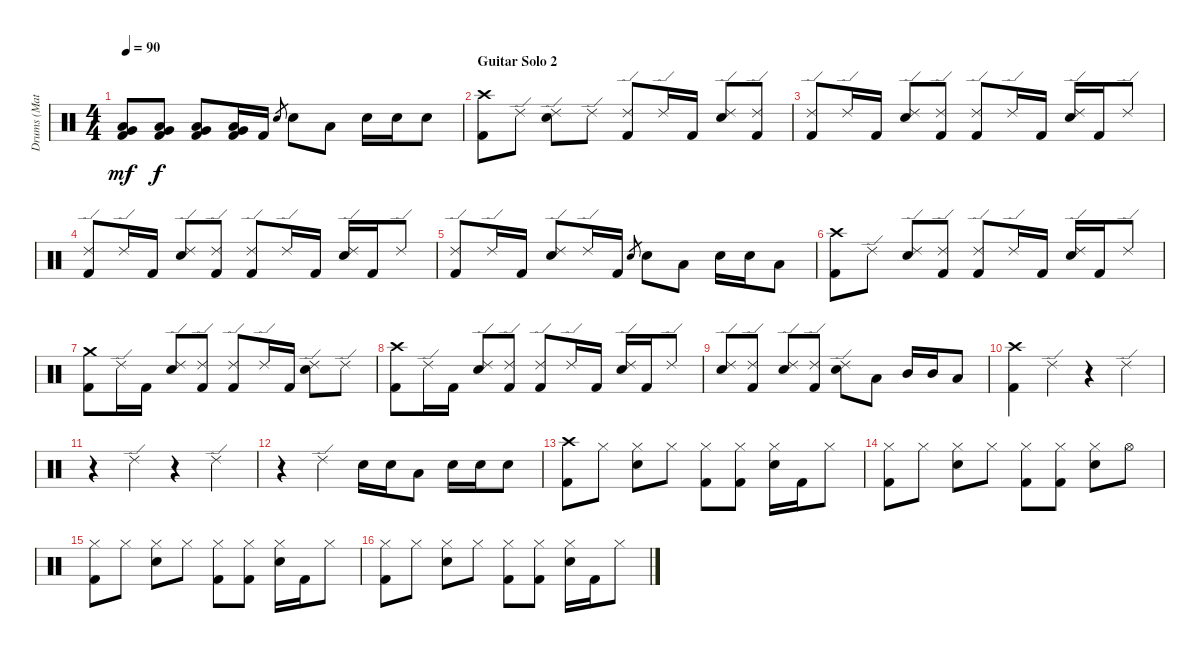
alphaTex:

\track ("Drums (Matt)" "Drums (Mat") {instrument percussion}
\staff {score}
\articulation defaults
\ts (4 4)
\tempo 90
\clef neutral
\ks c
("Low Tom (hit)" "Very Low Tom (hit)" "Kick (hit) 2").8{dy mf} ("Low Tom (hit)" "Very Low Tom (hit)" "Kick (hit) 2").8{dy f} ("Low Tom (hit)" "Very Low Tom (hit)" "Kick (hit) 2").8 ("Low Tom (hit)" "Very Low Tom (hit)" "Kick (hit) 2").16 "Kick (hit) 2".16 "Snare (hit) 2".8{gr} "Snare (hit) 2".8 "Low Tom (hit)".8 "Snare (hit) 2".16 "Snare (hit) 2".16 "Snare (hit) 2".8 |
\section ("" "Guitar Solo 2")
("Crash high (hit)" "Kick (hit) 2").8 "Ride (edge) 2".8 ("Ride (edge) 2" "Snare (hit) 2").8 "Ride (edge) 2".8 ("Ride (edge) 2" "Kick (hit) 2").8 "Ride (edge) 2".16 "Kick (hit) 2".16 ("Ride (edge) 2" "Snare (hit) 2").8 ("Ride (edge) 2" "Kick (hit) 2").8 |
("Ride (edge) 2" "Kick (hit) 2").8 "Ride (edge) 2".16 "Kick (hit) 2".16 ("Ride (edge) 2" "Snare (hit) 2").8 ("Ride (edge) 2" "Kick (hit) 2").8 ("Ride (edge) 2" "Kick (hit) 2").8 "Ride (edge) 2".16 "Kick (hit) 2".16 ("Ride (edge) 2" "Snare (hit) 2").16 "Kick (hit) 2".16 "Ride (edge) 2".8 |
("Ride (edge) 2" "Kick (hit) 2").8 "Ride (edge) 2".16 "Kick (hit) 2".16 ("Ride (edge) 2" "Snare (hit) 2").8 ("Ride (edge) 2" "Kick (hit) 2").8 ("Ride (edge) 2" "Kick (hit) 2").8 "Ride (edge) 2".16 "Kick (hit) 2".16 ("Ride (edge) 2" "Snare (hit) 2").16 "Kick (hit) 2".16 "Ride (edge) 2".8 |
("Ride (edge) 2" "Kick (hit) 2").8 "Ride (edge) 2".16 "Kick (hit) 2".16 ("Ride (edge) 2" "Snare (hit) 2").8 "Ride (edge) 2".16 "Kick (hit) 2".16 "Snare (hit) 2".8{gr} "Snare (hit) 2".8 "Low Tom (hit)".8 "Snare (hit) 2".16 "Snare (hit) 2".16 "Low Tom (hit)".8 |
("Crash high (hit)" "Kick (hit) 2").8 "Ride (edge) 2".8 ("Ride (edge) 2" "Snare (hit) 2").8 ("Ride (edge) 2" "Kick (hit) 2").8 ("Ride (edge) 2" "Kick (hit) 2").8 "Ride (edge) 2".16 "Kick (hit) 2".16 ("Ride (edge) 2" "Snare (hit) 2").16 "Kick (hit) 2".16 "Ride (edge) 2".8 |
("Crash medium (hit)" "Kick (hit) 2").8 "Ride (edge) 2".16 "Kick (hit) 2".16 ("Ride (edge) 2" "Snare (hit) 2").8 ("Ride (edge) 2" "Kick (hit) 2").8 ("Ride (edge) 2" "Kick (hit) 2").8 "Ride (edge) 2".16 "Kick (hit) 2".16 ("Ride (edge) 2" "Snare (hit) 2").8 "Ride (edge) 2".8 |
("Crash high (hit)" "Kick (hit) 2").8 "Ride (edge) 2".16 "Kick (hit) 2".16 ("Ride (edge) 2" "Snare (hit) 2").8 ("Ride (edge) 2" "Kick (hit) 2").8 ("Ride (edge) 2" "Kick (hit) 2").8 "Ride (edge) 2".16 "Kick (hit) 2".16 ("Ride (edge) 2" "Snare (hit) 2").16 "Kick (hit) 2".16 "Ride (edge) 2".8 |
("Ride (edge) 2" "Snare (hit) 2").8 ("Ride (edge) 2" "Kick (hit) 2").8 ("Ride (edge) 2" "Snare (hit) 2").8 ("Ride (edge) 2" "Kick (hit) 2").8 ("Ride (edge) 2" "Snare (hit) 2").8 "Low Tom (hit)".8 "Mid Tom (hit)".16 "Mid Tom (hit)".16 "Low Tom (hit)".8 |
("Crash high (hit)" "Kick (hit) 2").4 "Ride (edge) 2".4 r.4 "Ride (edge) 2".4 |
r.4 "Ride (edge) 2".4 r.4 "Ride (edge) 2".4 |
r.4 "Ride (edge) 2".4 "Snare (hit) 2".16 "Snare (hit) 2".16 "Low Tom (hit)".8 "Snare (hit) 2".16 "Snare (hit) 2".16 "Snare (hit) 2".8 |
("Crash high (hit)" "Kick (hit) 2").8 "Hi-Hat (closed)".8 ("Hi-Hat (closed)" "Snare (hit) 2").8 "Hi-Hat (closed)".8 ("Hi-Hat (closed)" "Kick (hit) 2").8 ("Hi-Hat (closed)" "Kick (hit) 2").8 ("Hi-Hat (closed)" "Snare (hit) 2").16 "Kick (hit) 2".16 "Hi-Hat (closed)".8 |
("Hi-Hat (closed)" "Kick (hit) 2").8 "Hi-Hat (closed)".8 ("Hi-Hat (closed)" "Snare (hit) 2").8 "Hi-Hat (closed)".8 ("Hi-Hat (closed)" "Kick (hit) 2").8 ("Hi-Hat (closed)" "Kick (hit) 2").8 ("Hi-Hat (closed)" "Snare (hit) 2").8 "Hi-Hat (open)".8 |
("Hi-Hat (closed)" "Kick (hit) 2").8 "Hi-Hat (closed)".8 ("Hi-Hat (closed)" "Snare (hit) 2").8 "Hi-Hat (closed)".8 ("Hi-Hat (closed)" "Kick (hit) 2").8 ("Hi-Hat (closed)" "Kick (hit) 2").8 ("Hi-Hat (closed)" "Snare (hit) 2").16 "Kick (hit) 2".16 "Hi-Hat (closed)".8 |
("Hi-Hat (closed)" "Kick (hit) 2").8 "Hi-Hat (closed)".8 ("Hi-Hat (closed)" "Snare (hit) 2").8 "Hi-Hat (closed)".8 ("Hi-Hat (closed)" "Kick (hit) 2").8 ("Hi-Hat (closed)" "Kick (hit) 2").8 ("Hi-Hat (closed)" "Snare (hit) 2").16 "Kick (hit) 2".16 "Hi-Hat (closed)".8
